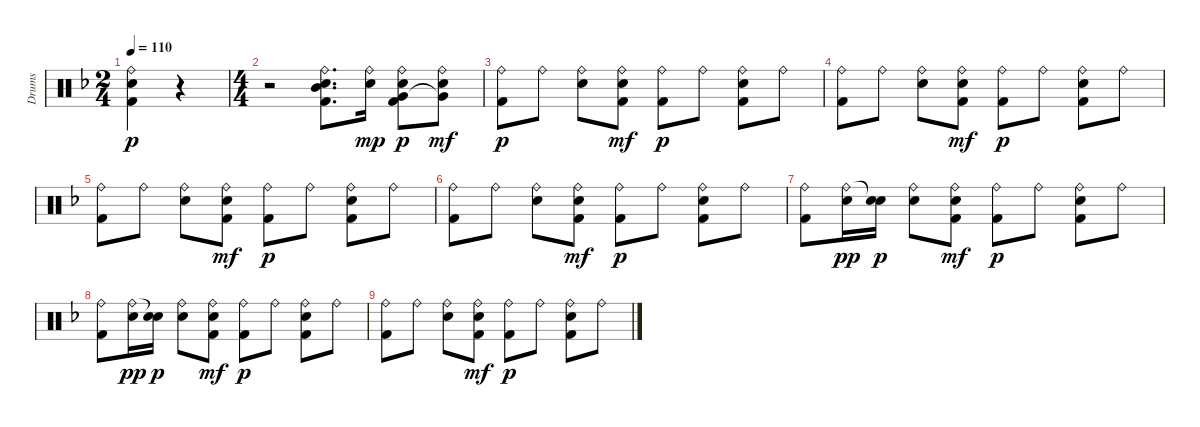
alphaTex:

\track ("Drums" "Drums") {instrument percussion}
\staff {score}
\articulation defaults
\ts (2 4)
\tempo 110
\clef neutral
\ks f
("Ride (bell)" "Electric Snare (hit)" "Kick (hit) 2").4{dy p} r.4 |
\ts (4 4)
r.2 ("Ride (bell)" "Electric Snare (hit)" "Mid Tom (hit)" "Kick (hit) 2").8{d} ("Ride (bell)" "Electric Snare (hit)").16{dy mp} ("Ride (bell)" "Electric Snare (hit)" "Very Low Tom (hit)" "Kick (hit) 2").8{dy p} ("Ride (bell)" "Electric Snare (hit)" "Very Low Tom (hit)"{t}).8{dy mf} |
("Ride (bell)" "Kick (hit) 2").8{dy p} "Ride (bell)".8 ("Ride (bell)" "Electric Snare (hit)").8 ("Ride (bell)" "Electric Snare (hit)" "Kick (hit) 2").8{dy mf} ("Ride (bell)" "Kick (hit) 2").8{dy p} "Ride (bell)".8 ("Ride (bell)" "Electric Snare (hit)" "Kick (hit) 2").8 "Ride (bell)".8 |
("Ride (bell)" "Kick (hit) 2").8 "Ride (bell)".8 ("Ride (bell)" "Electric Snare (hit)").8 ("Ride (bell)" "Electric Snare (hit)" "Kick (hit) 2").8{dy mf} ("Ride (bell)" "Kick (hit) 2").8{dy p} "Ride (bell)".8 ("Ride (bell)" "Electric Snare (hit)" "Kick (hit) 2").8 "Ride (bell)".8 |
("Ride (bell)" "Kick (hit) 2").8 "Ride (bell)".8 ("Ride (bell)" "Electric Snare (hit)").8 ("Ride (bell)" "Electric Snare (hit)" "Kick (hit) 2").8{dy mf} ("Ride (bell)" "Kick (hit) 2").8{dy p} "Ride (bell)".8 ("Ride (bell)" "Electric Snare (hit)" "Kick (hit) 2").8 "Ride (bell)".8 |
("Ride (bell)" "Kick (hit) 2").8 "Ride (bell)".8 ("Ride (bell)" "Electric Snare (hit)").8 ("Ride (bell)" "Electric Snare (hit)" "Kick (hit) 2").8{dy mf} ("Ride (bell)" "Kick (hit) 2").8{dy p} "Ride (bell)".8 ("Ride (bell)" "Electric Snare (hit)" "Kick (hit) 2").8 "Ride (bell)".8 |
("Ride (bell)" "Kick (hit) 2").8 ("Ride (bell)" "Electric Snare (hit)").16{dy pp} ("Snare (hit)"{t} "Electric Snare (hit)").16{dy p} ("Ride (bell)" "Electric Snare (hit)").8 ("Ride (bell)" "Electric Snare (hit)" "Kick (hit) 2").8{dy mf} ("Ride (bell)" "Kick (hit) 2").8{dy p} "Ride (bell)".8 ("Ride (bell)" "Electric Snare (hit)" "Kick (hit) 2").8 "Ride (bell)".8 |
("Ride (bell)" "Kick (hit) 2").8 ("Ride (bell)" "Electric Snare (hit)").16{dy pp} ("Snare (hit)"{t} "Electric Snare (hit)").16{dy p} ("Ride (bell)" "Electric Snare (hit)").8 ("Ride (bell)" "Electric Snare (hit)" "Kick (hit) 2").8{dy mf} ("Ride (bell)" "Kick (hit) 2").8{dy p} "Ride (bell)".8 ("Ride (bell)" "Electric Snare (hit)" "Kick (hit) 2").8 "Ride (bell)".8 |
("Ride (bell)" "Kick (hit) 2").8 "Ride (bell)".8 ("Ride (bell)" "Electric Snare (hit)").8 ("Ride (bell)" "Electric Snare (hit)" "Kick (hit) 2").8{dy mf} ("Ride (bell)" "Kick (hit) 2").8{dy p} "Ride (bell)".8 ("Ride (bell)" "Electric Snare (hit)" "Kick (hit) 2").8 "Ride (bell)".8
